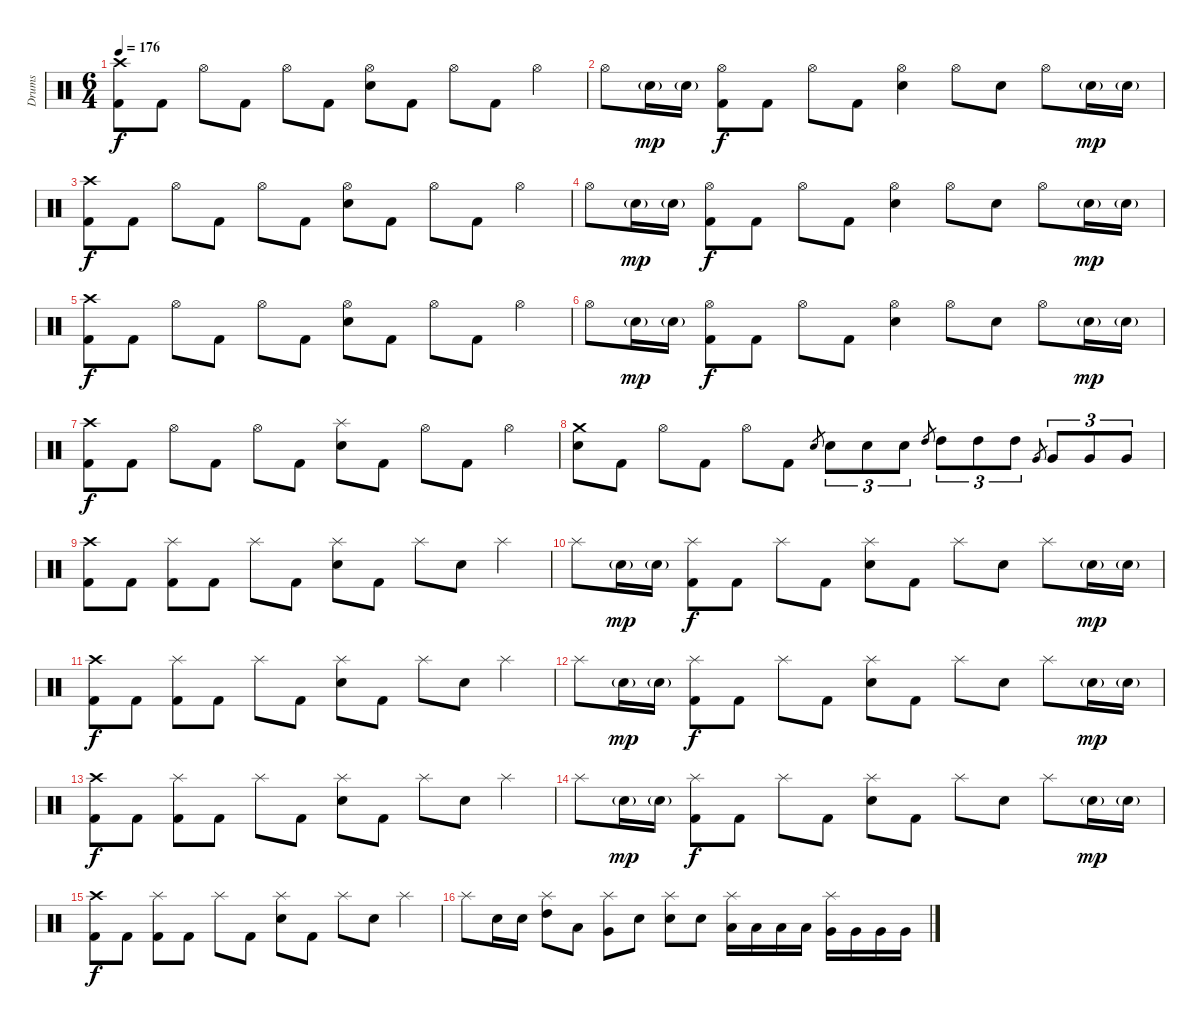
\track ("Drums" "Drums") {instrument percussion}
\staff {score}
\articulation defaults
\ts (6 4)
\tempo 176
\clef neutral
\ks c
("Crash high (hit)" "Kick (hit) 2").8{dy f} "Kick (hit) 2".8 "Hi-Hat (open)".8 "Kick (hit) 2".8 "Hi-Hat (open)".8 "Kick (hit) 2".8 ("Hi-Hat (open)" "Snare (hit) 2").8 "Kick (hit) 2".8 "Hi-Hat (open)".8 "Kick (hit) 2".8 "Hi-Hat (open)".4 |
"Hi-Hat (open)".8 "Snare (hit) 2"{g}.16{dy mp} "Snare (hit) 2"{g}.16 ("Hi-Hat (open)" "Kick (hit) 2").8{dy f} "Kick (hit) 2".8 "Hi-Hat (open)".8 "Kick (hit) 2".8 ("Hi-Hat (open)" "Snare (hit) 2").4 "Hi-Hat (open)".8 "Snare (hit) 2".8 "Hi-Hat (open)".8 "Snare (hit) 2"{g}.16{dy mp} "Snare (hit) 2"{g}.16 |
("Crash high (hit)" "Kick (hit) 2").8{dy f} "Kick (hit) 2".8 "Hi-Hat (open)".8 "Kick (hit) 2".8 "Hi-Hat (open)".8 "Kick (hit) 2".8 ("Hi-Hat (open)" "Snare (hit) 2").8 "Kick (hit) 2".8 "Hi-Hat (open)".8 "Kick (hit) 2".8 "Hi-Hat (open)".4 |
"Hi-Hat (open)".8 "Snare (hit) 2"{g}.16{dy mp} "Snare (hit) 2"{g}.16 ("Hi-Hat (open)" "Kick (hit) 2").8{dy f} "Kick (hit) 2".8 "Hi-Hat (open)".8 "Kick (hit) 2".8 ("Hi-Hat (open)" "Snare (hit) 2").4 "Hi-Hat (open)".8 "Snare (hit) 2".8 "Hi-Hat (open)".8 "Snare (hit) 2"{g}.16{dy mp} "Snare (hit) 2"{g}.16 |
("Crash high (hit)" "Kick (hit) 2").8{dy f} "Kick (hit) 2".8 "Hi-Hat (open)".8 "Kick (hit) 2".8 "Hi-Hat (open)".8 "Kick (hit) 2".8 ("Hi-Hat (open)" "Snare (hit) 2").8 "Kick (hit) 2".8 "Hi-Hat (open)".8 "Kick (hit) 2".8 "Hi-Hat (open)".4 |
"Hi-Hat (open)".8 "Snare (hit) 2"{g}.16{dy mp} "Snare (hit) 2"{g}.16 ("Hi-Hat (open)" "Kick (hit) 2").8{dy f} "Kick (hit) 2".8 "Hi-Hat (open)".8 "Kick (hit) 2".8 ("Hi-Hat (open)" "Snare (hit) 2").4 "Hi-Hat (open)".8 "Snare (hit) 2".8 "Hi-Hat (open)".8 "Snare (hit) 2"{g}.16{dy mp} "Snare (hit) 2"{g}.16 |
("Crash high (hit)" "Kick (hit) 2").8{dy f} "Kick (hit) 2".8 "Hi-Hat (open)".8 "Kick (hit) 2".8 "Hi-Hat (open)".8 "Kick (hit) 2".8 ("Splash (hit)" "Snare (hit) 2").8 "Kick (hit) 2".8 "Hi-Hat (open)".8 "Kick (hit) 2".8 "Hi-Hat (open)".4 |
("Crash medium (hit)" "Snare (hit) 2").8 "Kick (hit) 2".8 "Hi-Hat (open)".8 "Kick (hit) 2".8 "Hi-Hat (open)".8 "Kick (hit) 2".8 "Snare (hit) 2".8{gr} "Snare (hit) 2".8{tu (3 2)} "Snare (hit) 2".8{tu (3 2)} "Snare (hit) 2".8{tu (3 2)} "High Tom (hit)".8{gr} "High Tom (hit)".8{tu (3 2)} "High Tom (hit)".8{tu (3 2)} "High Tom (hit)".8{tu (3 2)} "Very Low Tom (hit)".8{gr} "Very Low Tom (hit)".8{tu (3 2)} "Very Low Tom (hit)".8{tu (3 2)} "Very Low Tom (hit)".8{tu (3 2)} |
("Crash high (hit)" "Kick (hit) 2").8 "Kick (hit) 2".8 ("Splash (hit)" "Kick (hit) 2").8 "Kick (hit) 2".8 "Splash (hit)".8 "Kick (hit) 2".8 ("Splash (hit)" "Snare (hit) 2").8 "Kick (hit) 2".8 "Splash (hit)".8 "Snare (hit) 2".8 "Splash (hit)".4 |
"Splash (hit)".8 "Snare (hit) 2"{g}.16{dy mp} "Snare (hit) 2"{g}.16 ("Splash (hit)" "Kick (hit) 2").8{dy f} "Kick (hit) 2".8 "Splash (hit)".8 "Kick (hit) 2".8 ("Splash (hit)" "Snare (hit) 2").8 "Kick (hit) 2".8 "Splash (hit)".8 "Snare (hit) 2".8 "Splash (hit)".8 "Snare (hit) 2"{g}.16{dy mp} "Snare (hit) 2"{g}.16 |
("Crash high (hit)" "Kick (hit) 2").8{dy f} "Kick (hit) 2".8 ("Splash (hit)" "Kick (hit) 2").8 "Kick (hit) 2".8 "Splash (hit)".8 "Kick (hit) 2".8 ("Splash (hit)" "Snare (hit) 2").8 "Kick (hit) 2".8 "Splash (hit)".8 "Snare (hit) 2".8 "Splash (hit)".4 |
"Splash (hit)".8 "Snare (hit) 2"{g}.16{dy mp} "Snare (hit) 2"{g}.16 ("Splash (hit)" "Kick (hit) 2").8{dy f} "Kick (hit) 2".8 "Splash (hit)".8 "Kick (hit) 2".8 ("Splash (hit)" "Snare (hit) 2").8 "Kick (hit) 2".8 "Splash (hit)".8 "Snare (hit) 2".8 "Splash (hit)".8 "Snare (hit) 2"{g}.16{dy mp} "Snare (hit) 2"{g}.16 |
("Crash high (hit)" "Kick (hit) 2").8{dy f} "Kick (hit) 2".8 ("Splash (hit)" "Kick (hit) 2").8 "Kick (hit) 2".8 "Splash (hit)".8 "Kick (hit) 2".8 ("Splash (hit)" "Snare (hit) 2").8 "Kick (hit) 2".8 "Splash (hit)".8 "Snare (hit) 2".8 "Splash (hit)".4 |
"Splash (hit)".8 "Snare (hit) 2"{g}.16{dy mp} "Snare (hit) 2"{g}.16 ("Splash (hit)" "Kick (hit) 2").8{dy f} "Kick (hit) 2".8 "Splash (hit)".8 "Kick (hit) 2".8 ("Splash (hit)" "Snare (hit) 2").8 "Kick (hit) 2".8 "Splash (hit)".8 "Snare (hit) 2".8 "Splash (hit)".8 "Snare (hit) 2"{g}.16{dy mp} "Snare (hit) 2"{g}.16 |
("Crash high (hit)" "Kick (hit) 2").8{dy f} "Kick (hit) 2".8 ("Splash (hit)" "Kick (hit) 2").8 "Kick (hit) 2".8 "Splash (hit)".8 "Kick (hit) 2".8 ("Splash (hit)" "Snare (hit) 2").8 "Kick (hit) 2".8 "Splash (hit)".8 "Snare (hit) 2".8 "Splash (hit)".4 |
"Splash (hit)".8 "Snare (hit) 2".16 "Snare (hit) 2".16 ("Splash (hit)" "High Tom (hit)").8 "Low Tom (hit)".8 ("Splash (hit)" "Very Low Tom (hit)").8 "Snare (hit) 2".8 ("Splash (hit)" "Snare (hit) 2").8 "Snare (hit) 2".8 ("Splash (hit)" "Low Tom (hit)").16 "Low Tom (hit)".16 "Low Tom (hit)".16 "Low Tom (hit)".16 ("Splash (hit)" "Very Low Tom (hit)").16 "Very Low Tom (hit)".16 "Very Low Tom (hit)".16 "Very Low Tom (hit)".16
